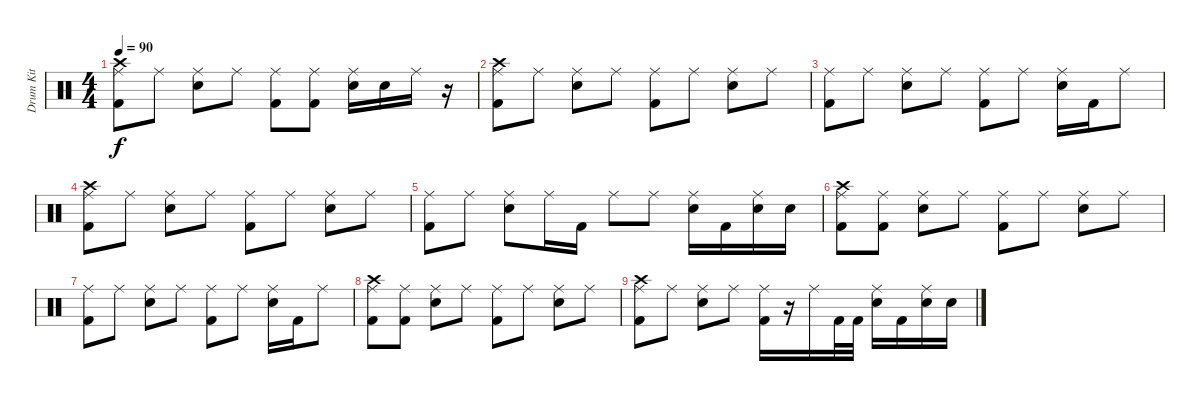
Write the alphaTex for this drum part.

\track ("Drum Kit" "Drum Kit") {instrument percussion}
\staff {score}
\articulation defaults
\ts (4 4)
\tempo 90
\clef neutral
\ks c
("Ride (middle)" "Crash high (hit)" "Kick (hit) 2").8{dy f} "Ride (middle)".8 ("Ride (middle)" "Snare (hit) 2").8 "Ride (middle)".8 ("Ride (middle)" "Kick (hit) 2").8 ("Ride (middle)" "Kick (hit) 2").8 ("Ride (middle)" "Snare (hit) 2").16 "Snare (hit) 2".16 "Ride (middle)".16 r.16 |
("Ride (middle)" "Crash high (hit)" "Kick (hit) 2").8 "Ride (middle)".8 ("Ride (middle)" "Snare (hit) 2").8 "Ride (middle)".8 ("Ride (middle)" "Kick (hit) 2").8 "Ride (middle)".8 ("Ride (middle)" "Snare (hit) 2").8 "Ride (middle)".8 |
("Ride (middle)" "Kick (hit) 2").8 "Ride (middle)".8 ("Ride (middle)" "Snare (hit) 2").8 "Ride (middle)".8 ("Ride (middle)" "Kick (hit) 2").8 "Ride (middle)".8 ("Ride (middle)" "Snare (hit) 2").16 "Kick (hit) 2".16 "Ride (middle)".8 |
("Ride (middle)" "Crash high (hit)" "Kick (hit) 2").8 "Ride (middle)".8 ("Ride (middle)" "Snare (hit) 2").8 "Ride (middle)".8 ("Ride (middle)" "Kick (hit) 2").8 "Ride (middle)".8 ("Ride (middle)" "Snare (hit) 2").8 "Ride (middle)".8 |
("Ride (middle)" "Kick (hit) 2").8 "Ride (middle)".8 ("Ride (middle)" "Snare (hit) 2").8 "Ride (middle)".16 "Kick (hit) 2".16 "Ride (middle)".8 "Ride (middle)".8 ("Ride (middle)" "Snare (hit) 2").16 "Kick (hit) 2".16 ("Ride (middle)" "Snare (hit) 2").16 "Snare (hit) 2".16 |
("Ride (middle)" "Crash high (hit)" "Kick (hit) 2").8 ("Ride (middle)" "Kick (hit) 2").8 ("Ride (middle)" "Snare (hit) 2").8 "Ride (middle)".8 ("Ride (middle)" "Kick (hit) 2").8 "Ride (middle)".8 ("Ride (middle)" "Snare (hit) 2").8 "Ride (middle)".8 |
("Ride (middle)" "Kick (hit) 2").8 "Ride (middle)".8 ("Ride (middle)" "Snare (hit) 2").8 "Ride (middle)".8 ("Ride (middle)" "Kick (hit) 2").8 "Ride (middle)".8 ("Ride (middle)" "Snare (hit) 2").16 "Kick (hit) 2".16 "Ride (middle)".8 |
("Ride (middle)" "Crash high (hit)" "Kick (hit) 2").8 ("Ride (middle)" "Kick (hit) 2").8 ("Ride (middle)" "Snare (hit) 2").8 "Ride (middle)".8 ("Ride (middle)" "Kick (hit) 2").8 "Ride (middle)".8 ("Ride (middle)" "Snare (hit) 2").8 "Ride (middle)".8 |
("Ride (middle)" "Crash high (hit)" "Kick (hit) 2").8 "Ride (middle)".8 ("Ride (middle)" "Snare (hit) 2").8 "Ride (middle)".8 ("Ride (middle)" "Kick (hit) 2").16 r.16 "Ride (middle)".16 "Kick (hit) 2".32 "Kick (hit) 2".32 ("Ride (middle)" "Snare (hit) 2").16 "Kick (hit) 2".16 ("Ride (middle)" "Snare (hit) 2").16 "Snare (hit) 2".16
